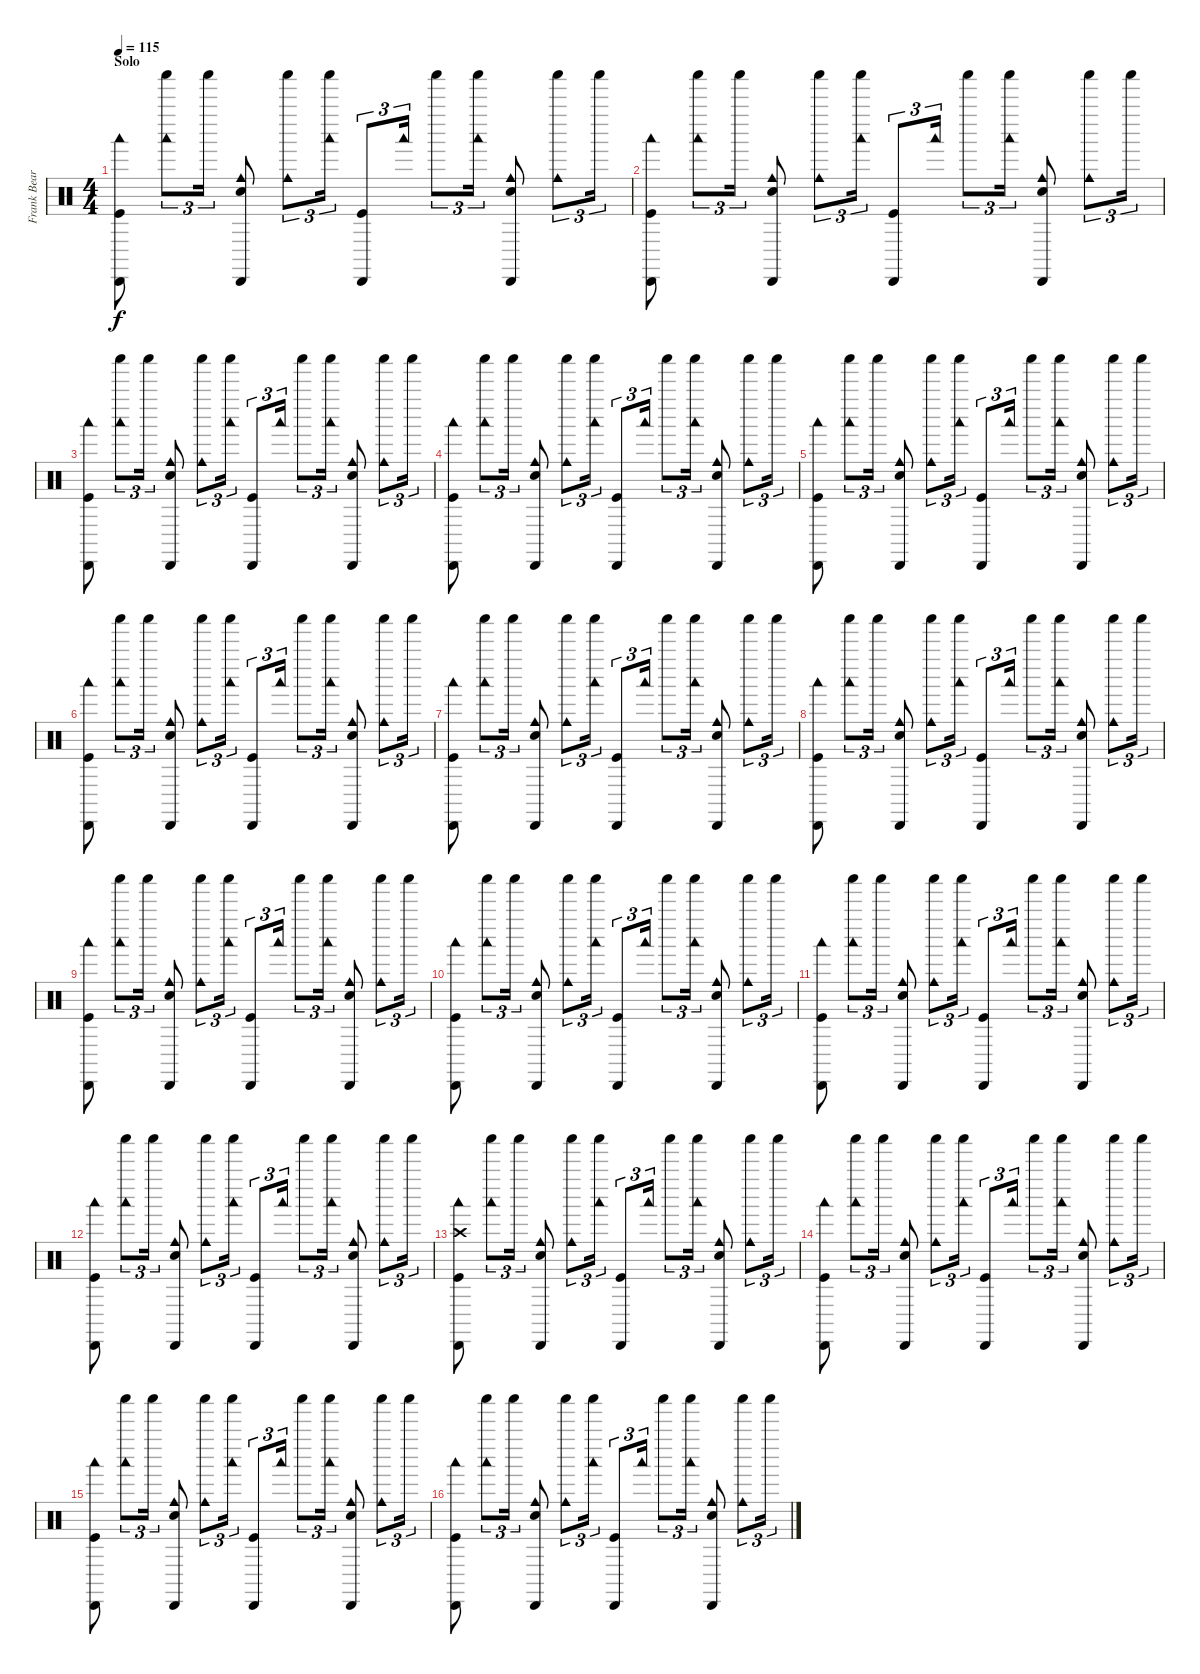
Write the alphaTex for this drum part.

\track ("Frank Beard" "Frank Bear") {instrument percussion}
\staff {score}
\articulation defaults
\ts (4 4)
\section ("" "Solo")
\tempo 115
\clef neutral
\ks c
("Woodblock low (hit)" "Cabasa (hit)" "Kick (hit)").8{dy f} ("Woodblock low (hit)" "Shaker (hit)").8{tu (3 2)} "Shaker (hit)".16{tu (3 2)} ("Cowbell medium (hit)" "Snare (hit) 2" "Cabasa (hit)").8 ("Cowbell medium (hit)" "Shaker (hit)").8{tu (3 2)} ("Woodblock low (hit)" "Shaker (hit)").16{tu (3 2)} ("Cabasa (hit)" "Kick (hit)").8{tu (3 2)} "Woodblock low (hit)".16{tu (3 2)} "Shaker (hit)".8{tu (3 2)} ("Woodblock low (hit)" "Shaker (hit)").16{tu (3 2)} ("Cowbell medium (hit)" "Snare (hit) 2" "Cabasa (hit)").8 ("Cowbell medium (hit)" "Shaker (hit)").8{tu (3 2)} "Shaker (hit)".16{tu (3 2)} |
("Woodblock low (hit)" "Cabasa (hit)" "Kick (hit)").8 ("Woodblock low (hit)" "Shaker (hit)").8{tu (3 2)} "Shaker (hit)".16{tu (3 2)} ("Cowbell medium (hit)" "Snare (hit) 2" "Cabasa (hit)").8 ("Cowbell medium (hit)" "Shaker (hit)").8{tu (3 2)} ("Woodblock low (hit)" "Shaker (hit)").16{tu (3 2)} ("Cabasa (hit)" "Kick (hit)").8{tu (3 2)} "Woodblock low (hit)".16{tu (3 2)} "Shaker (hit)".8{tu (3 2)} ("Woodblock low (hit)" "Shaker (hit)").16{tu (3 2)} ("Cowbell medium (hit)" "Snare (hit) 2" "Cabasa (hit)").8 ("Cowbell medium (hit)" "Shaker (hit)").8{tu (3 2)} "Shaker (hit)".16{tu (3 2)} |
("Woodblock low (hit)" "Cabasa (hit)" "Kick (hit)").8 ("Woodblock low (hit)" "Shaker (hit)").8{tu (3 2)} "Shaker (hit)".16{tu (3 2)} ("Cowbell medium (hit)" "Snare (hit) 2" "Cabasa (hit)").8 ("Cowbell medium (hit)" "Shaker (hit)").8{tu (3 2)} ("Woodblock low (hit)" "Shaker (hit)").16{tu (3 2)} ("Cabasa (hit)" "Kick (hit)").8{tu (3 2)} "Woodblock low (hit)".16{tu (3 2)} "Shaker (hit)".8{tu (3 2)} ("Woodblock low (hit)" "Shaker (hit)").16{tu (3 2)} ("Cowbell medium (hit)" "Snare (hit) 2" "Cabasa (hit)").8 ("Cowbell medium (hit)" "Shaker (hit)").8{tu (3 2)} "Shaker (hit)".16{tu (3 2)} |
("Woodblock low (hit)" "Cabasa (hit)" "Kick (hit)").8 ("Woodblock low (hit)" "Shaker (hit)").8{tu (3 2)} "Shaker (hit)".16{tu (3 2)} ("Cowbell medium (hit)" "Snare (hit) 2" "Cabasa (hit)").8 ("Cowbell medium (hit)" "Shaker (hit)").8{tu (3 2)} ("Woodblock low (hit)" "Shaker (hit)").16{tu (3 2)} ("Cabasa (hit)" "Kick (hit)").8{tu (3 2)} "Woodblock low (hit)".16{tu (3 2)} "Shaker (hit)".8{tu (3 2)} ("Woodblock low (hit)" "Shaker (hit)").16{tu (3 2)} ("Cowbell medium (hit)" "Snare (hit) 2" "Cabasa (hit)").8 ("Cowbell medium (hit)" "Shaker (hit)").8{tu (3 2)} "Shaker (hit)".16{tu (3 2)} |
("Woodblock low (hit)" "Cabasa (hit)" "Kick (hit)").8 ("Woodblock low (hit)" "Shaker (hit)").8{tu (3 2)} "Shaker (hit)".16{tu (3 2)} ("Cowbell medium (hit)" "Snare (hit) 2" "Cabasa (hit)").8 ("Cowbell medium (hit)" "Shaker (hit)").8{tu (3 2)} ("Woodblock low (hit)" "Shaker (hit)").16{tu (3 2)} ("Cabasa (hit)" "Kick (hit)").8{tu (3 2)} "Woodblock low (hit)".16{tu (3 2)} "Shaker (hit)".8{tu (3 2)} ("Woodblock low (hit)" "Shaker (hit)").16{tu (3 2)} ("Cowbell medium (hit)" "Snare (hit) 2" "Cabasa (hit)").8 ("Cowbell medium (hit)" "Shaker (hit)").8{tu (3 2)} "Shaker (hit)".16{tu (3 2)} |
("Woodblock low (hit)" "Cabasa (hit)" "Kick (hit)").8 ("Woodblock low (hit)" "Shaker (hit)").8{tu (3 2)} "Shaker (hit)".16{tu (3 2)} ("Cowbell medium (hit)" "Snare (hit) 2" "Cabasa (hit)").8 ("Cowbell medium (hit)" "Shaker (hit)").8{tu (3 2)} ("Woodblock low (hit)" "Shaker (hit)").16{tu (3 2)} ("Cabasa (hit)" "Kick (hit)").8{tu (3 2)} "Woodblock low (hit)".16{tu (3 2)} "Shaker (hit)".8{tu (3 2)} ("Woodblock low (hit)" "Shaker (hit)").16{tu (3 2)} ("Cowbell medium (hit)" "Snare (hit) 2" "Cabasa (hit)").8 ("Cowbell medium (hit)" "Shaker (hit)").8{tu (3 2)} "Shaker (hit)".16{tu (3 2)} |
("Woodblock low (hit)" "Cabasa (hit)" "Kick (hit)").8 ("Woodblock low (hit)" "Shaker (hit)").8{tu (3 2)} "Shaker (hit)".16{tu (3 2)} ("Cowbell medium (hit)" "Snare (hit) 2" "Cabasa (hit)").8 ("Cowbell medium (hit)" "Shaker (hit)").8{tu (3 2)} ("Woodblock low (hit)" "Shaker (hit)").16{tu (3 2)} ("Cabasa (hit)" "Kick (hit)").8{tu (3 2)} "Woodblock low (hit)".16{tu (3 2)} "Shaker (hit)".8{tu (3 2)} ("Woodblock low (hit)" "Shaker (hit)").16{tu (3 2)} ("Cowbell medium (hit)" "Snare (hit) 2" "Cabasa (hit)").8 ("Cowbell medium (hit)" "Shaker (hit)").8{tu (3 2)} "Shaker (hit)".16{tu (3 2)} |
("Woodblock low (hit)" "Cabasa (hit)" "Kick (hit)").8 ("Woodblock low (hit)" "Shaker (hit)").8{tu (3 2)} "Shaker (hit)".16{tu (3 2)} ("Cowbell medium (hit)" "Snare (hit) 2" "Cabasa (hit)").8 ("Cowbell medium (hit)" "Shaker (hit)").8{tu (3 2)} ("Woodblock low (hit)" "Shaker (hit)").16{tu (3 2)} ("Cabasa (hit)" "Kick (hit)").8{tu (3 2)} "Woodblock low (hit)".16{tu (3 2)} "Shaker (hit)".8{tu (3 2)} ("Woodblock low (hit)" "Shaker (hit)").16{tu (3 2)} ("Cowbell medium (hit)" "Snare (hit) 2" "Cabasa (hit)").8 ("Cowbell medium (hit)" "Shaker (hit)").8{tu (3 2)} "Shaker (hit)".16{tu (3 2)} |
("Woodblock low (hit)" "Cabasa (hit)" "Kick (hit)").8 ("Woodblock low (hit)" "Shaker (hit)").8{tu (3 2)} "Shaker (hit)".16{tu (3 2)} ("Cowbell medium (hit)" "Snare (hit) 2" "Cabasa (hit)").8 ("Cowbell medium (hit)" "Shaker (hit)").8{tu (3 2)} ("Woodblock low (hit)" "Shaker (hit)").16{tu (3 2)} ("Cabasa (hit)" "Kick (hit)").8{tu (3 2)} "Woodblock low (hit)".16{tu (3 2)} "Shaker (hit)".8{tu (3 2)} ("Woodblock low (hit)" "Shaker (hit)").16{tu (3 2)} ("Cowbell medium (hit)" "Snare (hit) 2" "Cabasa (hit)").8 ("Cowbell medium (hit)" "Shaker (hit)").8{tu (3 2)} "Shaker (hit)".16{tu (3 2)} |
("Woodblock low (hit)" "Cabasa (hit)" "Kick (hit)").8 ("Woodblock low (hit)" "Shaker (hit)").8{tu (3 2)} "Shaker (hit)".16{tu (3 2)} ("Cowbell medium (hit)" "Snare (hit) 2" "Cabasa (hit)").8 ("Cowbell medium (hit)" "Shaker (hit)").8{tu (3 2)} ("Woodblock low (hit)" "Shaker (hit)").16{tu (3 2)} ("Cabasa (hit)" "Kick (hit)").8{tu (3 2)} "Woodblock low (hit)".16{tu (3 2)} "Shaker (hit)".8{tu (3 2)} ("Woodblock low (hit)" "Shaker (hit)").16{tu (3 2)} ("Cowbell medium (hit)" "Snare (hit) 2" "Cabasa (hit)").8 ("Cowbell medium (hit)" "Shaker (hit)").8{tu (3 2)} "Shaker (hit)".16{tu (3 2)} |
("Woodblock low (hit)" "Cabasa (hit)" "Kick (hit)").8 ("Woodblock low (hit)" "Shaker (hit)").8{tu (3 2)} "Shaker (hit)".16{tu (3 2)} ("Cowbell medium (hit)" "Snare (hit) 2" "Cabasa (hit)").8 ("Cowbell medium (hit)" "Shaker (hit)").8{tu (3 2)} ("Woodblock low (hit)" "Shaker (hit)").16{tu (3 2)} ("Cabasa (hit)" "Kick (hit)").8{tu (3 2)} "Woodblock low (hit)".16{tu (3 2)} "Shaker (hit)".8{tu (3 2)} ("Woodblock low (hit)" "Shaker (hit)").16{tu (3 2)} ("Cowbell medium (hit)" "Snare (hit) 2" "Cabasa (hit)").8 ("Cowbell medium (hit)" "Shaker (hit)").8{tu (3 2)} "Shaker (hit)".16{tu (3 2)} |
("Woodblock low (hit)" "Cabasa (hit)" "Kick (hit)").8 ("Woodblock low (hit)" "Shaker (hit)").8{tu (3 2)} "Shaker (hit)".16{tu (3 2)} ("Cowbell medium (hit)" "Snare (hit) 2" "Cabasa (hit)").8 ("Cowbell medium (hit)" "Shaker (hit)").8{tu (3 2)} ("Woodblock low (hit)" "Shaker (hit)").16{tu (3 2)} ("Cabasa (hit)" "Kick (hit)").8{tu (3 2)} "Woodblock low (hit)".16{tu (3 2)} "Shaker (hit)".8{tu (3 2)} ("Woodblock low (hit)" "Shaker (hit)").16{tu (3 2)} ("Cowbell medium (hit)" "Snare (hit) 2" "Cabasa (hit)").8 ("Cowbell medium (hit)" "Shaker (hit)").8{tu (3 2)} "Shaker (hit)".16{tu (3 2)} |
("Woodblock low (hit)" "Crash high (hit)" "Cabasa (hit)" "Kick (hit)").8 ("Woodblock low (hit)" "Shaker (hit)").8{tu (3 2)} "Shaker (hit)".16{tu (3 2)} ("Cowbell medium (hit)" "Snare (hit) 2" "Cabasa (hit)").8 ("Cowbell medium (hit)" "Shaker (hit)").8{tu (3 2)} ("Woodblock low (hit)" "Shaker (hit)").16{tu (3 2)} ("Cabasa (hit)" "Kick (hit)").8{tu (3 2)} "Woodblock low (hit)".16{tu (3 2)} "Shaker (hit)".8{tu (3 2)} ("Woodblock low (hit)" "Shaker (hit)").16{tu (3 2)} ("Cowbell medium (hit)" "Snare (hit) 2" "Cabasa (hit)").8 ("Cowbell medium (hit)" "Shaker (hit)").8{tu (3 2)} "Shaker (hit)".16{tu (3 2)} |
("Woodblock low (hit)" "Cabasa (hit)" "Kick (hit)").8 ("Woodblock low (hit)" "Shaker (hit)").8{tu (3 2)} "Shaker (hit)".16{tu (3 2)} ("Cowbell medium (hit)" "Snare (hit) 2" "Cabasa (hit)").8 ("Cowbell medium (hit)" "Shaker (hit)").8{tu (3 2)} ("Woodblock low (hit)" "Shaker (hit)").16{tu (3 2)} ("Cabasa (hit)" "Kick (hit)").8{tu (3 2)} "Woodblock low (hit)".16{tu (3 2)} "Shaker (hit)".8{tu (3 2)} ("Woodblock low (hit)" "Shaker (hit)").16{tu (3 2)} ("Cowbell medium (hit)" "Snare (hit) 2" "Cabasa (hit)").8 ("Cowbell medium (hit)" "Shaker (hit)").8{tu (3 2)} "Shaker (hit)".16{tu (3 2)} |
("Woodblock low (hit)" "Cabasa (hit)" "Kick (hit)").8 ("Woodblock low (hit)" "Shaker (hit)").8{tu (3 2)} "Shaker (hit)".16{tu (3 2)} ("Cowbell medium (hit)" "Snare (hit) 2" "Cabasa (hit)").8 ("Cowbell medium (hit)" "Shaker (hit)").8{tu (3 2)} ("Woodblock low (hit)" "Shaker (hit)").16{tu (3 2)} ("Cabasa (hit)" "Kick (hit)").8{tu (3 2)} "Woodblock low (hit)".16{tu (3 2)} "Shaker (hit)".8{tu (3 2)} ("Woodblock low (hit)" "Shaker (hit)").16{tu (3 2)} ("Cowbell medium (hit)" "Snare (hit) 2" "Cabasa (hit)").8 ("Cowbell medium (hit)" "Shaker (hit)").8{tu (3 2)} "Shaker (hit)".16{tu (3 2)} |
("Woodblock low (hit)" "Cabasa (hit)" "Kick (hit)").8 ("Woodblock low (hit)" "Shaker (hit)").8{tu (3 2)} "Shaker (hit)".16{tu (3 2)} ("Cowbell medium (hit)" "Snare (hit) 2" "Cabasa (hit)").8 ("Cowbell medium (hit)" "Shaker (hit)").8{tu (3 2)} ("Woodblock low (hit)" "Shaker (hit)").16{tu (3 2)} ("Cabasa (hit)" "Kick (hit)").8{tu (3 2)} "Woodblock low (hit)".16{tu (3 2)} "Shaker (hit)".8{tu (3 2)} ("Woodblock low (hit)" "Shaker (hit)").16{tu (3 2)} ("Cowbell medium (hit)" "Snare (hit) 2" "Cabasa (hit)").8 ("Cowbell medium (hit)" "Shaker (hit)").8{tu (3 2)} "Shaker (hit)".16{tu (3 2)}
